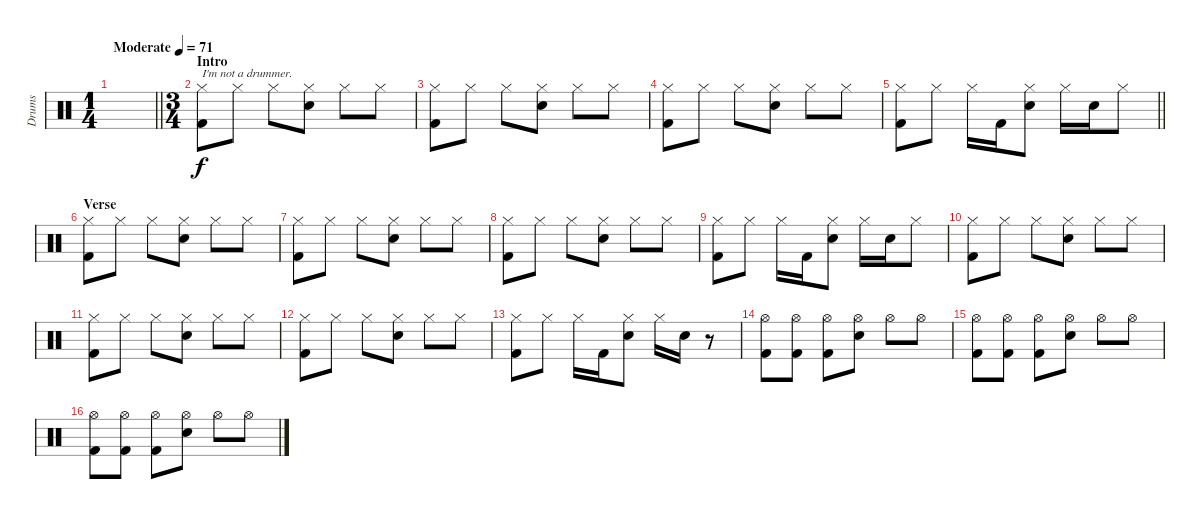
\track ("Drums" "Drums") {instrument percussion}
\staff {score}
\articulation defaults
\ts (1 4)
\tempo (71 "Moderate")
\clef neutral
\barLineRight lightlight
\ks c
|
\ts (3 4)
\section ("" "Intro")
("Hi-Hat (closed)" "Kick (hit) 2").8{txt "I'm not a drummer."} "Hi-Hat (closed)".8 "Hi-Hat (closed)".8 ("Hi-Hat (closed)" "Snare (hit) 2").8 "Hi-Hat (closed)".8 "Hi-Hat (closed)".8 |
("Hi-Hat (closed)" "Kick (hit) 2").8 "Hi-Hat (closed)".8 "Hi-Hat (closed)".8 ("Hi-Hat (closed)" "Snare (hit) 2").8 "Hi-Hat (closed)".8 "Hi-Hat (closed)".8 |
("Hi-Hat (closed)" "Kick (hit) 2").8 "Hi-Hat (closed)".8 "Hi-Hat (closed)".8 ("Hi-Hat (closed)" "Snare (hit) 2").8 "Hi-Hat (closed)".8 "Hi-Hat (closed)".8 |
\barLineRight lightlight
("Hi-Hat (closed)" "Kick (hit) 2").8 "Hi-Hat (closed)".8 "Hi-Hat (closed)".16 "Kick (hit) 2".16 ("Hi-Hat (closed)" "Snare (hit) 2").8 "Hi-Hat (closed)".16 "Snare (hit) 2".16 "Hi-Hat (closed)".8 |
\section ("" "Verse")
("Hi-Hat (closed)" "Kick (hit) 2").8 "Hi-Hat (closed)".8 "Hi-Hat (closed)".8 ("Hi-Hat (closed)" "Snare (hit) 2").8 "Hi-Hat (closed)".8 "Hi-Hat (closed)".8 |
("Hi-Hat (closed)" "Kick (hit) 2").8 "Hi-Hat (closed)".8 "Hi-Hat (closed)".8 ("Hi-Hat (closed)" "Snare (hit) 2").8 "Hi-Hat (closed)".8 "Hi-Hat (closed)".8 |
("Hi-Hat (closed)" "Kick (hit) 2").8 "Hi-Hat (closed)".8 "Hi-Hat (closed)".8 ("Hi-Hat (closed)" "Snare (hit) 2").8 "Hi-Hat (closed)".8 "Hi-Hat (closed)".8 |
("Hi-Hat (closed)" "Kick (hit) 2").8 "Hi-Hat (closed)".8 "Hi-Hat (closed)".16 "Kick (hit) 2".16 ("Hi-Hat (closed)" "Snare (hit) 2").8 "Hi-Hat (closed)".16 "Snare (hit) 2".16 "Hi-Hat (closed)".8 |
("Hi-Hat (closed)" "Kick (hit) 2").8 "Hi-Hat (closed)".8 "Hi-Hat (closed)".8 ("Hi-Hat (closed)" "Snare (hit) 2").8 "Hi-Hat (closed)".8 "Hi-Hat (closed)".8 |
("Hi-Hat (closed)" "Kick (hit) 2").8 "Hi-Hat (closed)".8 "Hi-Hat (closed)".8 ("Hi-Hat (closed)" "Snare (hit) 2").8 "Hi-Hat (closed)".8 "Hi-Hat (closed)".8 |
("Hi-Hat (closed)" "Kick (hit) 2").8 "Hi-Hat (closed)".8 "Hi-Hat (closed)".8 ("Hi-Hat (closed)" "Snare (hit) 2").8 "Hi-Hat (closed)".8 "Hi-Hat (closed)".8 |
("Hi-Hat (closed)" "Kick (hit) 2").8 "Hi-Hat (closed)".8 "Hi-Hat (closed)".16 "Kick (hit) 2".16 ("Hi-Hat (closed)" "Snare (hit) 2").8 "Hi-Hat (closed)".16 "Snare (hit) 2".16 r.8 |
("Hi-Hat (open)" "Kick (hit) 2").8 ("Hi-Hat (open)" "Kick (hit) 2").8 ("Hi-Hat (open)" "Kick (hit) 2").8 ("Hi-Hat (open)" "Snare (hit) 2").8 "Hi-Hat (open)".8 "Hi-Hat (open)".8 |
("Hi-Hat (open)" "Kick (hit) 2").8 ("Hi-Hat (open)" "Kick (hit) 2").8 ("Hi-Hat (open)" "Kick (hit) 2").8 ("Hi-Hat (open)" "Snare (hit) 2").8 "Hi-Hat (open)".8 "Hi-Hat (open)".8 |
("Hi-Hat (open)" "Kick (hit) 2").8 ("Hi-Hat (open)" "Kick (hit) 2").8 ("Hi-Hat (open)" "Kick (hit) 2").8 ("Hi-Hat (open)" "Snare (hit) 2").8 "Hi-Hat (open)".8 "Hi-Hat (open)".8
